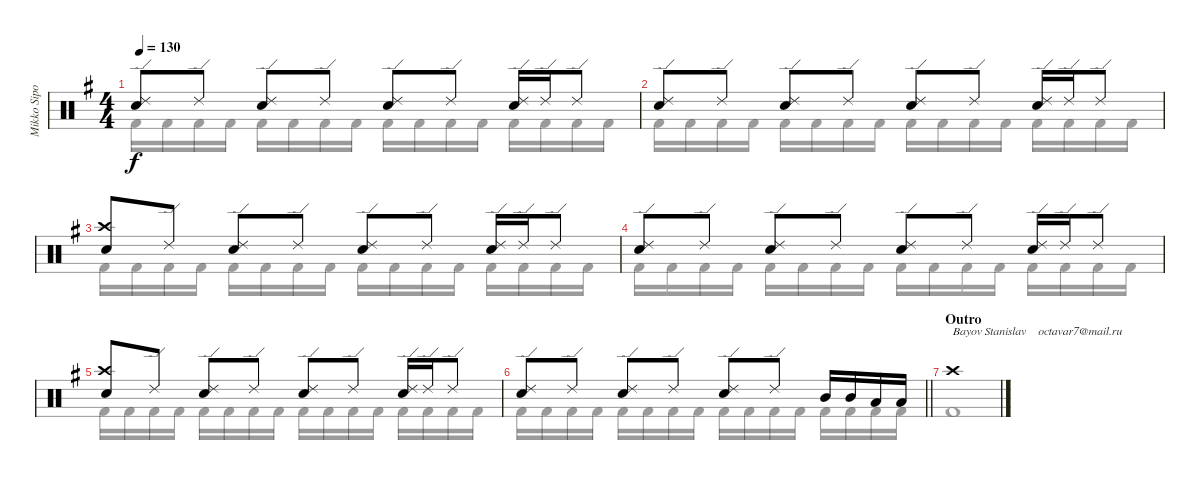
\track ("Mikko Sipola (drums)" "Mikko Sipo") {instrument percussion}
\staff {score}
\articulation defaults
\voice
\ts (4 4)
\tempo 130
\clef neutral
\ks eminor
("Ride (edge) 2" "Electric Snare (hit)").8{dy f} "Ride (edge) 2".8 ("Ride (edge) 2" "Electric Snare (hit)").8 "Ride (edge) 2".8 ("Ride (edge) 2" "Electric Snare (hit)").8 "Ride (edge) 2".8 ("Ride (edge) 2" "Electric Snare (hit)").16 "Ride (edge) 2".16 "Ride (edge) 2".8 |
("Ride (edge) 2" "Electric Snare (hit)").8 "Ride (edge) 2".8 ("Ride (edge) 2" "Electric Snare (hit)").8 "Ride (edge) 2".8 ("Ride (edge) 2" "Electric Snare (hit)").8 "Ride (edge) 2".8 ("Ride (edge) 2" "Electric Snare (hit)").16 "Ride (edge) 2".16 "Ride (edge) 2".8 |
("Crash high (hit)" "Electric Snare (hit)").8 "Ride (edge) 2".8 ("Ride (edge) 2" "Electric Snare (hit)").8 "Ride (edge) 2".8 ("Ride (edge) 2" "Electric Snare (hit)").8 "Ride (edge) 2".8 ("Ride (edge) 2" "Electric Snare (hit)").16 "Ride (edge) 2".16 "Ride (edge) 2".8 |
("Ride (edge) 2" "Electric Snare (hit)").8 "Ride (edge) 2".8 ("Ride (edge) 2" "Electric Snare (hit)").8 "Ride (edge) 2".8 ("Ride (edge) 2" "Electric Snare (hit)").8 "Ride (edge) 2".8 ("Ride (edge) 2" "Electric Snare (hit)").16 "Ride (edge) 2".16 "Ride (edge) 2".8 |
("Crash high (hit)" "Electric Snare (hit)").8 "Ride (edge) 2".8 ("Ride (edge) 2" "Electric Snare (hit)").8 "Ride (edge) 2".8 ("Ride (edge) 2" "Electric Snare (hit)").8 "Ride (edge) 2".8 ("Ride (edge) 2" "Electric Snare (hit)").16 "Ride (edge) 2".16 "Ride (edge) 2".8 |
\barLineRight lightlight
("Ride (edge) 2" "Electric Snare (hit)").8 "Ride (edge) 2".8 ("Ride (edge) 2" "Electric Snare (hit)").8 "Ride (edge) 2".8 ("Ride (edge) 2" "Electric Snare (hit)").8 "Ride (edge) 2".8 "Mid Tom (hit)".16 "Mid Tom (hit)".16 "Low Tom (hit)".16 "Low Tom (hit)".16 |
\section ("" "Outro")
"Crash high (hit)".1{txt "Bayov Stanislav    octavar7@mail.ru"} |
|
|
|
|
|
|
|
|
\voice
\clef neutral
\ottava regular
\simile none
\ks eminor "Kick (hit) 2".16{dy f} "Kick (hit) 2".16 "Kick (hit) 2".16 "Kick (hit) 2".16 "Kick (hit) 2".16 "Kick (hit) 2".16 "Kick (hit) 2".16 "Kick (hit) 2".16 "Kick (hit) 2".16 "Kick (hit) 2".16 "Kick (hit) 2".16 "Kick (hit) 2".16 "Kick (hit) 2".16 "Kick (hit) 2".16 "Kick (hit) 2".16 "Kick (hit) 2".16
|
"Kick (hit) 2".16 "Kick (hit) 2".16 "Kick (hit) 2".16 "Kick (hit) 2".16 "Kick (hit) 2".16 "Kick (hit) 2".16 "Kick (hit) 2".16 "Kick (hit) 2".16 "Kick (hit) 2".16 "Kick (hit) 2".16 "Kick (hit) 2".16 "Kick (hit) 2".16 "Kick (hit) 2".16 "Kick (hit) 2".16 "Kick (hit) 2".16 "Kick (hit) 2".16 |
"Kick (hit) 2".16 "Kick (hit) 2".16 "Kick (hit) 2".16 "Kick (hit) 2".16 "Kick (hit) 2".16 "Kick (hit) 2".16 "Kick (hit) 2".16 "Kick (hit) 2".16 "Kick (hit) 2".16 "Kick (hit) 2".16 "Kick (hit) 2".16 "Kick (hit) 2".16 "Kick (hit) 2".16 "Kick (hit) 2".16 "Kick (hit) 2".16 "Kick (hit) 2".16 |
"Kick (hit) 2".16 "Kick (hit) 2".16 "Kick (hit) 2".16 "Kick (hit) 2".16 "Kick (hit) 2".16 "Kick (hit) 2".16 "Kick (hit) 2".16 "Kick (hit) 2".16 "Kick (hit) 2".16 "Kick (hit) 2".16 "Kick (hit) 2".16 "Kick (hit) 2".16 "Kick (hit) 2".16 "Kick (hit) 2".16 "Kick (hit) 2".16 "Kick (hit) 2".16 |
"Kick (hit) 2".16 "Kick (hit) 2".16 "Kick (hit) 2".16 "Kick (hit) 2".16 "Kick (hit) 2".16 "Kick (hit) 2".16 "Kick (hit) 2".16 "Kick (hit) 2".16 "Kick (hit) 2".16 "Kick (hit) 2".16 "Kick (hit) 2".16 "Kick (hit) 2".16 "Kick (hit) 2".16 "Kick (hit) 2".16 "Kick (hit) 2".16 "Kick (hit) 2".16 |
\barLineRight lightlight "Kick (hit) 2".16 "Kick (hit) 2".16 "Kick (hit) 2".16 "Kick (hit) 2".16 "Kick (hit) 2".16 "Kick (hit) 2".16 "Kick (hit) 2".16 "Kick (hit) 2".16 "Kick (hit) 2".16 "Kick (hit) 2".16 "Kick (hit) 2".16 "Kick (hit) 2".16 "Kick (hit) 2".16 "Kick (hit) 2".16 "Kick (hit) 2".16 "Kick (hit) 2".16
|
"Kick (hit) 2".1 |
|
|
|
|
|
|
|
|
